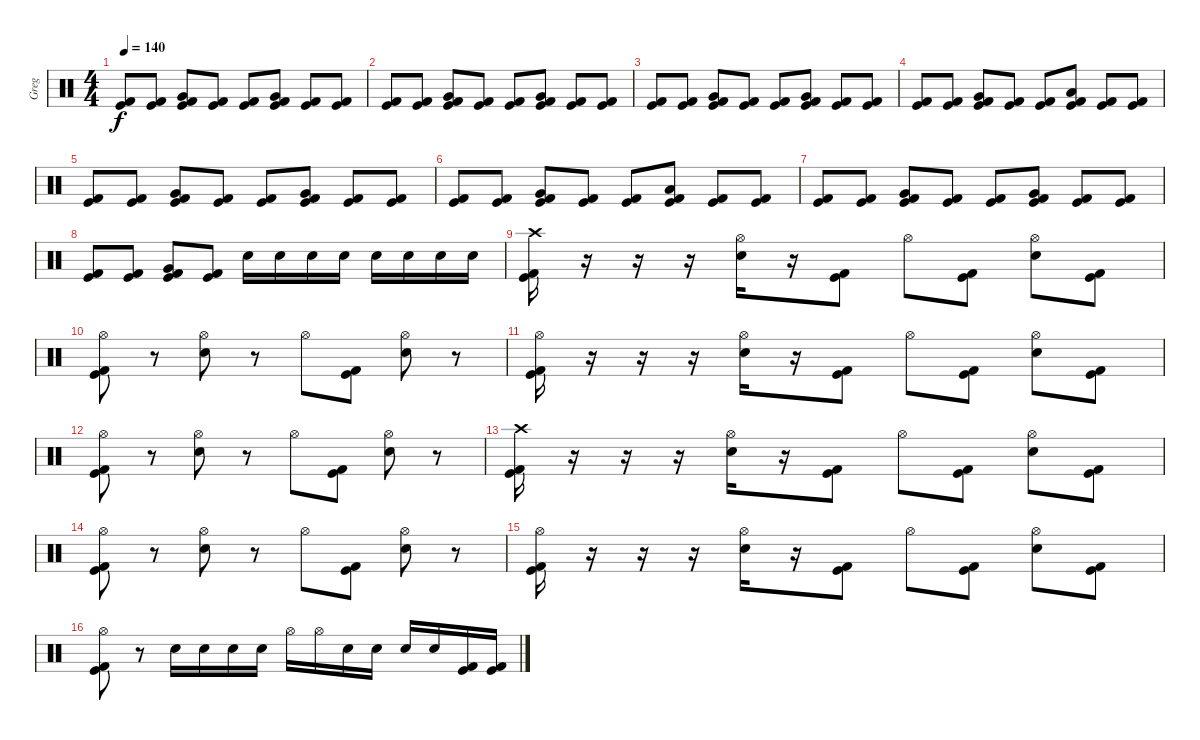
\track ("Greg" "Greg") {instrument percussion}
\staff {score}
\articulation defaults
\ts (4 4)
\tempo 140
\clef neutral
\ks c
("Kick (hit)" "Kick (hit) 2").8{dy f} ("Kick (hit)" "Kick (hit) 2").8 ("Very Low Tom (hit)" "Kick (hit)" "Kick (hit) 2").8 ("Kick (hit)" "Kick (hit) 2").8 ("Kick (hit)" "Kick (hit) 2").8 ("Very Low Tom (hit)" "Kick (hit)" "Kick (hit) 2").8 ("Kick (hit)" "Kick (hit) 2").8 ("Kick (hit)" "Kick (hit) 2").8 |
("Kick (hit)" "Kick (hit) 2").8 ("Kick (hit)" "Kick (hit) 2").8 ("Very Low Tom (hit)" "Kick (hit)" "Kick (hit) 2").8 ("Kick (hit)" "Kick (hit) 2").8 ("Kick (hit)" "Kick (hit) 2").8 ("Very Low Tom (hit)" "Kick (hit)" "Kick (hit) 2").8 ("Kick (hit)" "Kick (hit) 2").8 ("Kick (hit)" "Kick (hit) 2").8 |
("Kick (hit)" "Kick (hit) 2").8 ("Kick (hit)" "Kick (hit) 2").8 ("Very Low Tom (hit)" "Kick (hit)" "Kick (hit) 2").8 ("Kick (hit)" "Kick (hit) 2").8 ("Kick (hit)" "Kick (hit) 2").8 ("Very Low Tom (hit)" "Kick (hit)" "Kick (hit) 2").8 ("Kick (hit)" "Kick (hit) 2").8 ("Kick (hit)" "Kick (hit) 2").8 |
("Kick (hit)" "Kick (hit) 2").8 ("Kick (hit)" "Kick (hit) 2").8 ("Very Low Tom (hit)" "Kick (hit)" "Kick (hit) 2").8 ("Kick (hit)" "Kick (hit) 2").8 ("Kick (hit)" "Kick (hit) 2").8 ("Low Tom (hit)" "Kick (hit)" "Kick (hit) 2").8 ("Kick (hit)" "Kick (hit) 2").8 ("Kick (hit)" "Kick (hit) 2").8 |
("Kick (hit)" "Kick (hit) 2").8 ("Kick (hit)" "Kick (hit) 2").8 ("Very Low Tom (hit)" "Kick (hit)" "Kick (hit) 2").8 ("Kick (hit)" "Kick (hit) 2").8 ("Kick (hit)" "Kick (hit) 2").8 ("Very Low Tom (hit)" "Kick (hit)" "Kick (hit) 2").8 ("Kick (hit)" "Kick (hit) 2").8 ("Kick (hit)" "Kick (hit) 2").8 |
("Kick (hit)" "Kick (hit) 2").8 ("Kick (hit)" "Kick (hit) 2").8 ("Very Low Tom (hit)" "Kick (hit)" "Kick (hit) 2").8 ("Kick (hit)" "Kick (hit) 2").8 ("Kick (hit)" "Kick (hit) 2").8 ("Low Tom (hit)" "Kick (hit)" "Kick (hit) 2").8 ("Kick (hit)" "Kick (hit) 2").8 ("Kick (hit)" "Kick (hit) 2").8 |
("Kick (hit)" "Kick (hit) 2").8 ("Kick (hit)" "Kick (hit) 2").8 ("Very Low Tom (hit)" "Kick (hit)" "Kick (hit) 2").8 ("Kick (hit)" "Kick (hit) 2").8 ("Kick (hit)" "Kick (hit) 2").8 ("Very Low Tom (hit)" "Kick (hit)" "Kick (hit) 2").8 ("Kick (hit)" "Kick (hit) 2").8 ("Kick (hit)" "Kick (hit) 2").8 |
("Kick (hit)" "Kick (hit) 2").8 ("Kick (hit)" "Kick (hit) 2").8 ("Very Low Tom (hit)" "Kick (hit)" "Kick (hit) 2").8 ("Kick (hit)" "Kick (hit) 2").8 "Snare (hit) 2".16 "Snare (hit) 2".16 "Snare (hit) 2".16 "Snare (hit) 2".16 "Snare (hit) 2".16 "Snare (hit) 2".16 "Snare (hit) 2".16 "Snare (hit) 2".16 |
("Crash high (hit)" "Kick (hit)" "Kick (hit) 2").16 r.16 r.16 r.16 ("Hi-Hat (open)" "Snare (hit) 2").16 r.16 ("Kick (hit)" "Kick (hit) 2").8 "Hi-Hat (open)".8 ("Kick (hit)" "Kick (hit) 2").8 ("Hi-Hat (open)" "Snare (hit) 2").8 ("Kick (hit)" "Kick (hit) 2").8 |
("Hi-Hat (open)" "Kick (hit)" "Kick (hit) 2").8 r.8 ("Hi-Hat (open)" "Snare (hit) 2").8 r.8 "Hi-Hat (open)".8 ("Kick (hit)" "Kick (hit) 2").8 ("Hi-Hat (open)" "Snare (hit) 2").8 r.8 |
("Hi-Hat (open)" "Kick (hit)" "Kick (hit) 2").16 r.16 r.16 r.16 ("Hi-Hat (open)" "Snare (hit) 2").16 r.16 ("Kick (hit)" "Kick (hit) 2").8 "Hi-Hat (open)".8 ("Kick (hit)" "Kick (hit) 2").8 ("Hi-Hat (open)" "Snare (hit) 2").8 ("Kick (hit)" "Kick (hit) 2").8 |
("Hi-Hat (open)" "Kick (hit)" "Kick (hit) 2").8 r.8 ("Hi-Hat (open)" "Snare (hit) 2").8 r.8 "Hi-Hat (open)".8 ("Kick (hit)" "Kick (hit) 2").8 ("Hi-Hat (open)" "Snare (hit) 2").8 r.8 |
("Crash high (hit)" "Kick (hit)" "Kick (hit) 2").16 r.16 r.16 r.16 ("Hi-Hat (open)" "Snare (hit) 2").16 r.16 ("Kick (hit)" "Kick (hit) 2").8 "Hi-Hat (open)".8 ("Kick (hit)" "Kick (hit) 2").8 ("Hi-Hat (open)" "Snare (hit) 2").8 ("Kick (hit)" "Kick (hit) 2").8 |
("Hi-Hat (open)" "Kick (hit)" "Kick (hit) 2").8 r.8 ("Hi-Hat (open)" "Snare (hit) 2").8 r.8 "Hi-Hat (open)".8 ("Kick (hit)" "Kick (hit) 2").8 ("Hi-Hat (open)" "Snare (hit) 2").8 r.8 |
("Hi-Hat (open)" "Kick (hit)" "Kick (hit) 2").16 r.16 r.16 r.16 ("Hi-Hat (open)" "Snare (hit) 2").16 r.16 ("Kick (hit)" "Kick (hit) 2").8 "Hi-Hat (open)".8 ("Kick (hit)" "Kick (hit) 2").8 ("Hi-Hat (open)" "Snare (hit) 2").8 ("Kick (hit)" "Kick (hit) 2").8 |
("Hi-Hat (open)" "Kick (hit)" "Kick (hit) 2").8 r.8 "Snare (hit) 2".16 "Snare (hit) 2".16 "Snare (hit) 2".16 "Snare (hit) 2".16 "Hi-Hat (open)".16 "Hi-Hat (open)".16 "Snare (hit) 2".16 "Snare (hit) 2".16 "Snare (hit) 2".16 "Snare (hit) 2".16 ("Kick (hit)" "Kick (hit) 2").16 ("Kick (hit)" "Kick (hit) 2").16
